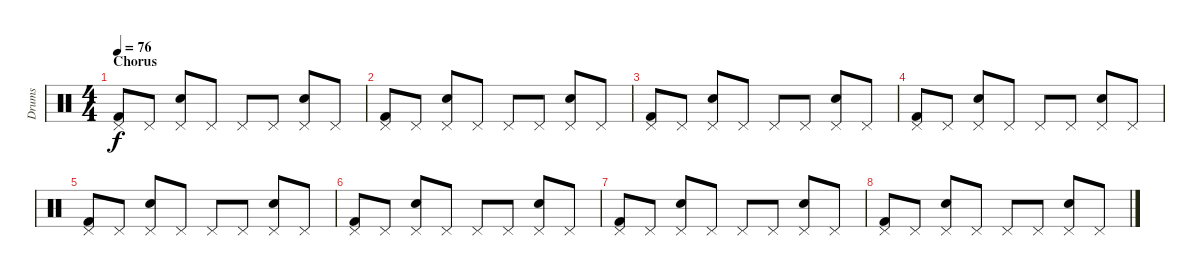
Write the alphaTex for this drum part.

\track ("Drums" "Drums") {instrument percussion}
\staff {score}
\articulation defaults
\ts (4 4)
\section ("" "Chorus")
\tempo 76
\clef neutral
\ks c
("Pedal Hi-Hat (hit)" "Kick (hit) 2").8{dy f} "Pedal Hi-Hat (hit)".8 ("Pedal Hi-Hat (hit)" "Electric Snare (hit)").8 "Pedal Hi-Hat (hit)".8 "Pedal Hi-Hat (hit)".8 "Pedal Hi-Hat (hit)".8 ("Pedal Hi-Hat (hit)" "Electric Snare (hit)").8 "Pedal Hi-Hat (hit)".8 |
("Pedal Hi-Hat (hit)" "Kick (hit) 2").8 "Pedal Hi-Hat (hit)".8 ("Pedal Hi-Hat (hit)" "Electric Snare (hit)").8 "Pedal Hi-Hat (hit)".8 "Pedal Hi-Hat (hit)".8 "Pedal Hi-Hat (hit)".8 ("Pedal Hi-Hat (hit)" "Electric Snare (hit)").8 "Pedal Hi-Hat (hit)".8 |
("Pedal Hi-Hat (hit)" "Kick (hit) 2").8 "Pedal Hi-Hat (hit)".8 ("Pedal Hi-Hat (hit)" "Electric Snare (hit)").8 "Pedal Hi-Hat (hit)".8 "Pedal Hi-Hat (hit)".8 "Pedal Hi-Hat (hit)".8 ("Pedal Hi-Hat (hit)" "Electric Snare (hit)").8 "Pedal Hi-Hat (hit)".8 |
("Pedal Hi-Hat (hit)" "Kick (hit) 2").8 "Pedal Hi-Hat (hit)".8 ("Pedal Hi-Hat (hit)" "Electric Snare (hit)").8 "Pedal Hi-Hat (hit)".8 "Pedal Hi-Hat (hit)".8 "Pedal Hi-Hat (hit)".8 ("Pedal Hi-Hat (hit)" "Electric Snare (hit)").8 "Pedal Hi-Hat (hit)".8 |
("Pedal Hi-Hat (hit)" "Kick (hit) 2").8 "Pedal Hi-Hat (hit)".8 ("Pedal Hi-Hat (hit)" "Electric Snare (hit)").8 "Pedal Hi-Hat (hit)".8 "Pedal Hi-Hat (hit)".8 "Pedal Hi-Hat (hit)".8 ("Pedal Hi-Hat (hit)" "Electric Snare (hit)").8 "Pedal Hi-Hat (hit)".8 |
("Pedal Hi-Hat (hit)" "Kick (hit) 2").8 "Pedal Hi-Hat (hit)".8 ("Pedal Hi-Hat (hit)" "Electric Snare (hit)").8 "Pedal Hi-Hat (hit)".8 "Pedal Hi-Hat (hit)".8 "Pedal Hi-Hat (hit)".8 ("Pedal Hi-Hat (hit)" "Electric Snare (hit)").8 "Pedal Hi-Hat (hit)".8 |
("Pedal Hi-Hat (hit)" "Kick (hit) 2").8 "Pedal Hi-Hat (hit)".8 ("Pedal Hi-Hat (hit)" "Electric Snare (hit)").8 "Pedal Hi-Hat (hit)".8 "Pedal Hi-Hat (hit)".8 "Pedal Hi-Hat (hit)".8 ("Pedal Hi-Hat (hit)" "Electric Snare (hit)").8 "Pedal Hi-Hat (hit)".8 |
("Pedal Hi-Hat (hit)" "Kick (hit) 2").8 "Pedal Hi-Hat (hit)".8 ("Pedal Hi-Hat (hit)" "Electric Snare (hit)").8 "Pedal Hi-Hat (hit)".8 "Pedal Hi-Hat (hit)".8 "Pedal Hi-Hat (hit)".8 ("Pedal Hi-Hat (hit)" "Electric Snare (hit)").8 "Pedal Hi-Hat (hit)".8
